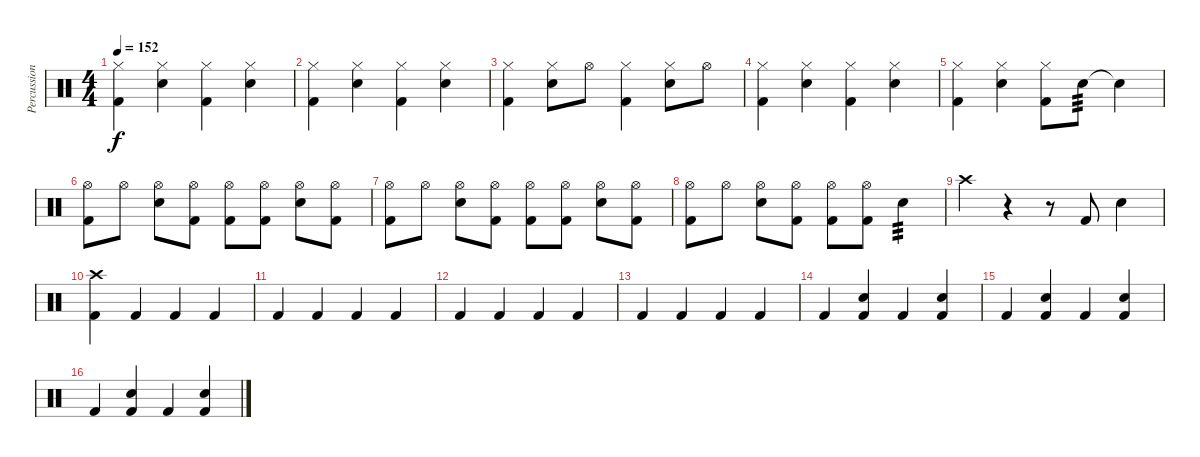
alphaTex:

\track ("Percussion" "Percussion") {instrument percussion}
\staff {score}
\articulation defaults
\ts (4 4)
\tempo 152
\clef neutral
\ks c
("Kick (hit) 2" "Hi-Hat (closed)").4{dy f} ("Snare (hit) 2" "Hi-Hat (closed)").4 ("Kick (hit) 2" "Hi-Hat (closed)").4 ("Snare (hit) 2" "Hi-Hat (closed)").4 |
("Kick (hit) 2" "Hi-Hat (closed)").4 ("Snare (hit) 2" "Hi-Hat (closed)").4 ("Kick (hit) 2" "Hi-Hat (closed)").4 ("Snare (hit) 2" "Hi-Hat (closed)").4 |
("Kick (hit) 2" "Hi-Hat (closed)").4 ("Snare (hit) 2" "Hi-Hat (closed)").8 "Hi-Hat (open)".8 ("Kick (hit) 2" "Hi-Hat (closed)").4 ("Snare (hit) 2" "Hi-Hat (closed)").8 "Hi-Hat (open)".8 |
("Kick (hit) 2" "Hi-Hat (closed)").4 ("Snare (hit) 2" "Hi-Hat (closed)").4 ("Kick (hit) 2" "Hi-Hat (closed)").4 ("Snare (hit) 2" "Hi-Hat (closed)").4 |
("Kick (hit) 2" "Hi-Hat (closed)").4 ("Snare (hit) 2" "Hi-Hat (closed)").4 ("Kick (hit) 2" "Hi-Hat (closed)").8 "Snare (hit) 2".8{tp 3} "Snare (hit)"{t}.4 |
("Kick (hit) 2" "Hi-Hat (open)").8 "Hi-Hat (open)".8 ("Snare (hit) 2" "Hi-Hat (open)").8 ("Kick (hit) 2" "Hi-Hat (open)").8 ("Kick (hit) 2" "Hi-Hat (open)").8 ("Kick (hit) 2" "Hi-Hat (open)").8 ("Snare (hit) 2" "Hi-Hat (open)").8 ("Kick (hit) 2" "Hi-Hat (open)").8 |
("Kick (hit) 2" "Hi-Hat (open)").8 "Hi-Hat (open)".8 ("Snare (hit) 2" "Hi-Hat (open)").8 ("Kick (hit) 2" "Hi-Hat (open)").8 ("Kick (hit) 2" "Hi-Hat (open)").8 ("Kick (hit) 2" "Hi-Hat (open)").8 ("Snare (hit) 2" "Hi-Hat (open)").8 ("Kick (hit) 2" "Hi-Hat (open)").8 |
("Kick (hit) 2" "Hi-Hat (open)").8 "Hi-Hat (open)".8 ("Snare (hit) 2" "Hi-Hat (open)").8 ("Kick (hit) 2" "Hi-Hat (open)").8 ("Kick (hit) 2" "Hi-Hat (open)").8 ("Kick (hit) 2" "Hi-Hat (open)").8 "Snare (hit) 2".4{tp 3} |
"Crash high (hit)".4 r.4 r.8 "Kick (hit) 2".8 "Snare (hit) 2".4 |
("Crash high (hit)" "Kick (hit) 2").4 "Kick (hit) 2".4 "Kick (hit) 2".4 "Kick (hit) 2".4 |
"Kick (hit) 2".4 "Kick (hit) 2".4 "Kick (hit) 2".4 "Kick (hit) 2".4 |
"Kick (hit) 2".4 "Kick (hit) 2".4 "Kick (hit) 2".4 "Kick (hit) 2".4 |
"Kick (hit) 2".4 "Kick (hit) 2".4 "Kick (hit) 2".4 "Kick (hit) 2".4 |
"Kick (hit) 2".4 ("Snare (hit) 2" "Kick (hit) 2").4 "Kick (hit) 2".4 ("Snare (hit) 2" "Kick (hit) 2").4 |
"Kick (hit) 2".4 ("Snare (hit) 2" "Kick (hit) 2").4 "Kick (hit) 2".4 ("Snare (hit) 2" "Kick (hit) 2").4 |
"Kick (hit) 2".4 ("Snare (hit) 2" "Kick (hit) 2").4 "Kick (hit) 2".4 ("Snare (hit) 2" "Kick (hit) 2").4
